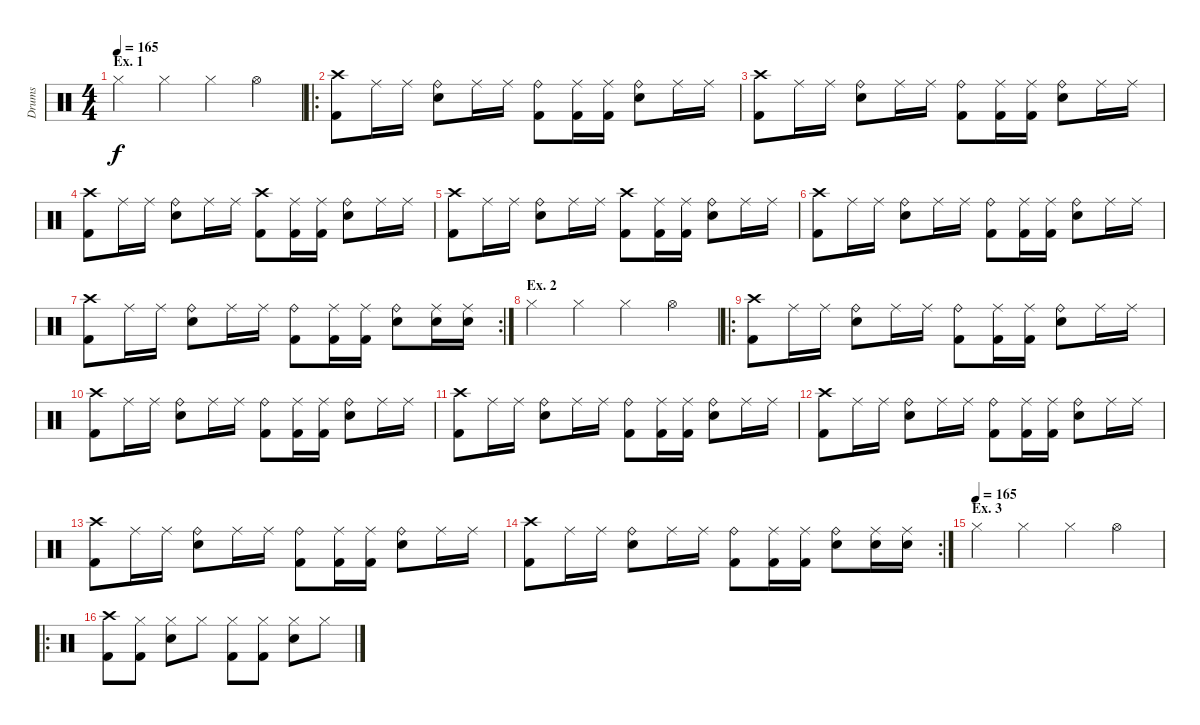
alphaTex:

\track ("Drums" "Drums") {instrument percussion}
\staff {score}
\articulation defaults
\ts (4 4)
\section ("" "Ex. 1")
\tempo 165
\tempo 130
\tempo 165
\clef neutral
\ks c "Hi-Hat (closed)".4{dy f} "Hi-Hat (closed)".4 "Hi-Hat (closed)".4 "Hi-Hat (open)".4
|
\ro
("Crash high (hit)" "Kick (hit) 2").8 "Ride (middle)".16 "Ride (middle)".16 ("Ride (bell)" "Snare (hit) 2").8 "Ride (middle)".16 "Ride (middle)".16 ("Ride (bell)" "Kick (hit) 2").8 ("Ride (middle)" "Kick (hit) 2").16 ("Ride (middle)" "Kick (hit) 2").16 ("Ride (bell)" "Snare (hit) 2").8 "Ride (middle)".16 "Ride (middle)".16 |
("Crash high (hit)" "Kick (hit) 2").8 "Ride (middle)".16 "Ride (middle)".16 ("Ride (bell)" "Snare (hit) 2").8 "Ride (middle)".16 "Ride (middle)".16 ("Ride (bell)" "Kick (hit) 2").8 ("Ride (middle)" "Kick (hit) 2").16 ("Ride (middle)" "Kick (hit) 2").16 ("Ride (bell)" "Snare (hit) 2").8 "Ride (middle)".16 "Ride (middle)".16 |
("Crash high (hit)" "Kick (hit) 2").8 "Ride (middle)".16 "Ride (middle)".16 ("Ride (bell)" "Snare (hit) 2").8 "Ride (middle)".16 "Ride (middle)".16 ("Crash high (hit)" "Kick (hit) 2").8 ("Ride (middle)" "Kick (hit) 2").16 ("Ride (middle)" "Kick (hit) 2").16 ("Ride (bell)" "Snare (hit) 2").8 "Ride (middle)".16 "Ride (middle)".16 |
("Crash high (hit)" "Kick (hit) 2").8 "Ride (middle)".16 "Ride (middle)".16 ("Ride (bell)" "Snare (hit) 2").8 "Ride (middle)".16 "Ride (middle)".16 ("Crash high (hit)" "Kick (hit) 2").8 ("Ride (middle)" "Kick (hit) 2").16 ("Ride (middle)" "Kick (hit) 2").16 ("Ride (bell)" "Snare (hit) 2").8 "Ride (middle)".16 "Ride (middle)".16 |
("Crash high (hit)" "Kick (hit) 2").8 "Ride (middle)".16 "Ride (middle)".16 ("Ride (bell)" "Snare (hit) 2").8 "Ride (middle)".16 "Ride (middle)".16 ("Ride (bell)" "Kick (hit) 2").8 ("Ride (middle)" "Kick (hit) 2").16 ("Ride (middle)" "Kick (hit) 2").16 ("Ride (bell)" "Snare (hit) 2").8 "Ride (middle)".16 "Ride (middle)".16 |
\rc 2
("Crash high (hit)" "Kick (hit) 2").8 "Ride (middle)".16 "Ride (middle)".16 ("Ride (bell)" "Snare (hit) 2").8 "Ride (middle)".16 "Ride (middle)".16 ("Ride (bell)" "Kick (hit) 2").8 ("Ride (middle)" "Kick (hit) 2").16 ("Ride (middle)" "Kick (hit) 2").16 ("Ride (bell)" "Snare (hit) 2").8 ("Ride (middle)" "Snare (hit) 2").16 ("Ride (middle)" "Snare (hit) 2").16 |
\section ("" "Ex. 2")
"Hi-Hat (closed)".4 "Hi-Hat (closed)".4 "Hi-Hat (closed)".4 "Hi-Hat (open)".4 |
\ro
("Crash high (hit)" "Kick (hit) 2").8 "Ride (middle)".16 "Ride (middle)".16 ("Ride (bell)" "Snare (hit) 2").8 "Ride (middle)".16 "Ride (middle)".16 ("Ride (bell)" "Kick (hit) 2").8 ("Ride (middle)" "Kick (hit) 2").16 ("Ride (middle)" "Kick (hit) 2").16 ("Ride (bell)" "Snare (hit) 2").8 "Ride (middle)".16 "Ride (middle)".16 |
("Crash high (hit)" "Kick (hit) 2").8 "Ride (middle)".16 "Ride (middle)".16 ("Ride (bell)" "Snare (hit) 2").8 "Ride (middle)".16 "Ride (middle)".16 ("Ride (bell)" "Kick (hit) 2").8 ("Ride (middle)" "Kick (hit) 2").16 ("Ride (middle)" "Kick (hit) 2").16 ("Ride (bell)" "Snare (hit) 2").8 "Ride (middle)".16 "Ride (middle)".16 |
("Crash high (hit)" "Kick (hit) 2").8 "Ride (middle)".16 "Ride (middle)".16 ("Ride (bell)" "Snare (hit) 2").8 "Ride (middle)".16 "Ride (middle)".16 ("Ride (bell)" "Kick (hit) 2").8 ("Ride (middle)" "Kick (hit) 2").16 ("Ride (middle)" "Kick (hit) 2").16 ("Ride (bell)" "Snare (hit) 2").8 "Ride (middle)".16 "Ride (middle)".16 |
("Crash high (hit)" "Kick (hit) 2").8 "Ride (middle)".16 "Ride (middle)".16 ("Ride (bell)" "Snare (hit) 2").8 "Ride (middle)".16 "Ride (middle)".16 ("Ride (bell)" "Kick (hit) 2").8 ("Ride (middle)" "Kick (hit) 2").16 ("Ride (middle)" "Kick (hit) 2").16 ("Ride (bell)" "Snare (hit) 2").8 "Ride (middle)".16 "Ride (middle)".16 |
("Crash high (hit)" "Kick (hit) 2").8 "Ride (middle)".16 "Ride (middle)".16 ("Ride (bell)" "Snare (hit) 2").8 "Ride (middle)".16 "Ride (middle)".16 ("Ride (bell)" "Kick (hit) 2").8 ("Ride (middle)" "Kick (hit) 2").16 ("Ride (middle)" "Kick (hit) 2").16 ("Ride (bell)" "Snare (hit) 2").8 "Ride (middle)".16 "Ride (middle)".16 |
\rc 2
("Crash high (hit)" "Kick (hit) 2").8 "Ride (middle)".16 "Ride (middle)".16 ("Ride (bell)" "Snare (hit) 2").8 "Ride (middle)".16 "Ride (middle)".16 ("Ride (bell)" "Kick (hit) 2").8 ("Ride (middle)" "Kick (hit) 2").16 ("Ride (middle)" "Kick (hit) 2").16 ("Ride (bell)" "Snare (hit) 2").8 ("Ride (middle)" "Snare (hit) 2").16 ("Ride (middle)" "Snare (hit) 2").16 |
\section ("" "Ex. 3")
\tempo (165)
"Hi-Hat (closed)".4 "Hi-Hat (closed)".4 "Hi-Hat (closed)".4 "Hi-Hat (open)".4 |
\ro
("Crash high (hit)" "Kick (hit) 2").8 ("Hi-Hat (closed)" "Kick (hit) 2").8 ("Hi-Hat (closed)" "Snare (hit) 2").8 "Hi-Hat (closed)".8 ("Hi-Hat (closed)" "Kick (hit) 2").8 ("Hi-Hat (closed)" "Kick (hit) 2").8 ("Hi-Hat (closed)" "Snare (hit) 2").8 "Hi-Hat (closed)".8
